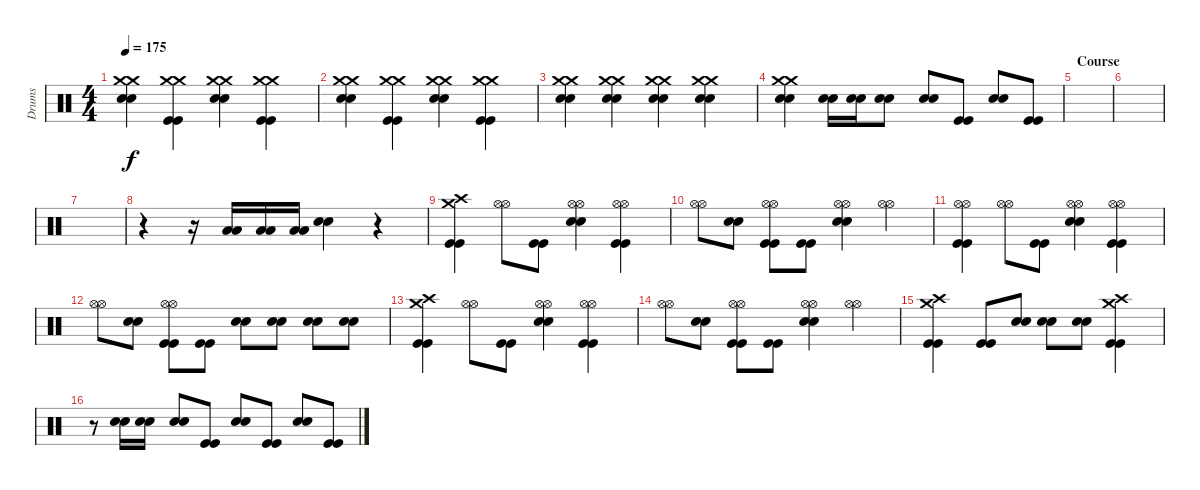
\track ("Drums" "Drums") {instrument percussion}
\staff {score}
\articulation defaults
\ts (4 4)
\tempo 175
\clef neutral
\ks c
("Crash medium (hit)" "Crash medium (hit)" "Electric Snare (hit)" "Electric Snare (hit)").4{dy f} ("Crash medium (hit)" "Crash medium (hit)" "Kick (hit)" "Kick (hit)").4 ("Crash medium (hit)" "Crash medium (hit)" "Electric Snare (hit)" "Electric Snare (hit)").4 ("Crash medium (hit)" "Crash medium (hit)" "Kick (hit)" "Kick (hit)").4 |
("Crash medium (hit)" "Crash medium (hit)" "Electric Snare (hit)" "Electric Snare (hit)").4 ("Crash medium (hit)" "Crash medium (hit)" "Kick (hit)" "Kick (hit)").4 ("Crash medium (hit)" "Crash medium (hit)" "Electric Snare (hit)" "Electric Snare (hit)").4 ("Crash medium (hit)" "Crash medium (hit)" "Kick (hit)" "Kick (hit)").4 |
("Crash medium (hit)" "Crash medium (hit)" "Electric Snare (hit)" "Electric Snare (hit)").4 ("Crash medium (hit)" "Crash medium (hit)" "Electric Snare (hit)" "Electric Snare (hit)").4 ("Crash medium (hit)" "Crash medium (hit)" "Electric Snare (hit)" "Electric Snare (hit)").4 ("Crash medium (hit)" "Crash medium (hit)" "Electric Snare (hit)" "Electric Snare (hit)").4 |
("Crash medium (hit)" "Crash medium (hit)" "Electric Snare (hit)" "Electric Snare (hit)").4 ("Electric Snare (hit)" "Electric Snare (hit)").16 ("Electric Snare (hit)" "Electric Snare (hit)").16 ("Electric Snare (hit)" "Electric Snare (hit)").8 ("Electric Snare (hit)" "Electric Snare (hit)").8 ("Kick (hit)" "Kick (hit)").8 ("Electric Snare (hit)" "Electric Snare (hit)").8 ("Kick (hit)" "Kick (hit)").8 |
\section ("" "Course")
|
|
|
r.4 r.16 ("Low Floor Tom (hit)" "Low Floor Tom (hit)").16 ("Low Floor Tom (hit)" "Low Floor Tom (hit)").16 ("Low Floor Tom (hit)" "Low Floor Tom (hit)").16 ("Electric Snare (hit)" "Electric Snare (hit)").4 r.4 |
("Crash high (hit)" "Crash medium (hit)" "Kick (hit)" "Kick (hit)").4 ("Hi-Hat (open)" "Hi-Hat (open)").8 ("Kick (hit)" "Kick (hit)").8 ("Hi-Hat (open)" "Hi-Hat (open)" "Electric Snare (hit)" "Electric Snare (hit)").4 ("Hi-Hat (open)" "Hi-Hat (open)" "Kick (hit)" "Kick (hit)").4 |
("Hi-Hat (open)" "Hi-Hat (open)").8 ("Electric Snare (hit)" "Electric Snare (hit)").8 ("Hi-Hat (open)" "Hi-Hat (open)" "Kick (hit)" "Kick (hit)").8 ("Kick (hit)" "Kick (hit)").8 ("Hi-Hat (open)" "Hi-Hat (open)" "Electric Snare (hit)" "Electric Snare (hit)").4 ("Hi-Hat (open)" "Hi-Hat (open)").4 |
("Hi-Hat (open)" "Hi-Hat (open)" "Kick (hit)" "Kick (hit)").4 ("Hi-Hat (open)" "Hi-Hat (open)").8 ("Kick (hit)" "Kick (hit)").8 ("Hi-Hat (open)" "Hi-Hat (open)" "Electric Snare (hit)" "Electric Snare (hit)").4 ("Hi-Hat (open)" "Hi-Hat (open)" "Kick (hit)" "Kick (hit)").4 |
("Hi-Hat (open)" "Hi-Hat (open)").8 ("Electric Snare (hit)" "Electric Snare (hit)").8 ("Hi-Hat (open)" "Hi-Hat (open)" "Kick (hit)" "Kick (hit)").8 ("Kick (hit)" "Kick (hit)").8 ("Electric Snare (hit)" "Electric Snare (hit)").8 ("Electric Snare (hit)" "Electric Snare (hit)").8 ("Electric Snare (hit)" "Electric Snare (hit)").8 ("Electric Snare (hit)" "Electric Snare (hit)").8 |
("Crash high (hit)" "Crash medium (hit)" "Kick (hit)" "Kick (hit)").4 ("Hi-Hat (open)" "Hi-Hat (open)").8 ("Kick (hit)" "Kick (hit)").8 ("Hi-Hat (open)" "Hi-Hat (open)" "Electric Snare (hit)" "Electric Snare (hit)").4 ("Hi-Hat (open)" "Hi-Hat (open)" "Kick (hit)" "Kick (hit)").4 |
("Hi-Hat (open)" "Hi-Hat (open)").8 ("Electric Snare (hit)" "Electric Snare (hit)").8 ("Hi-Hat (open)" "Hi-Hat (open)" "Kick (hit)" "Kick (hit)").8 ("Kick (hit)" "Kick (hit)").8 ("Hi-Hat (open)" "Hi-Hat (open)" "Electric Snare (hit)" "Electric Snare (hit)").4 ("Hi-Hat (open)" "Hi-Hat (open)").4 |
("Crash high (hit)" "Crash medium (hit)" "Kick (hit)" "Kick (hit)").4 ("Kick (hit)" "Kick (hit)").8 ("Electric Snare (hit)" "Electric Snare (hit)").8 ("Electric Snare (hit)" "Electric Snare (hit)").8 ("Electric Snare (hit)" "Electric Snare (hit)").8 ("Crash high (hit)" "Crash medium (hit)" "Kick (hit)" "Kick (hit)").4 |
r.8 ("Electric Snare (hit)" "Electric Snare (hit)").16 ("Electric Snare (hit)" "Electric Snare (hit)").16 ("Electric Snare (hit)" "Electric Snare (hit)").8 ("Kick (hit)" "Kick (hit)").8 ("Electric Snare (hit)" "Electric Snare (hit)").8 ("Kick (hit)" "Kick (hit)").8 ("Electric Snare (hit)" "Electric Snare (hit)").8 ("Kick (hit)" "Kick (hit)").8
